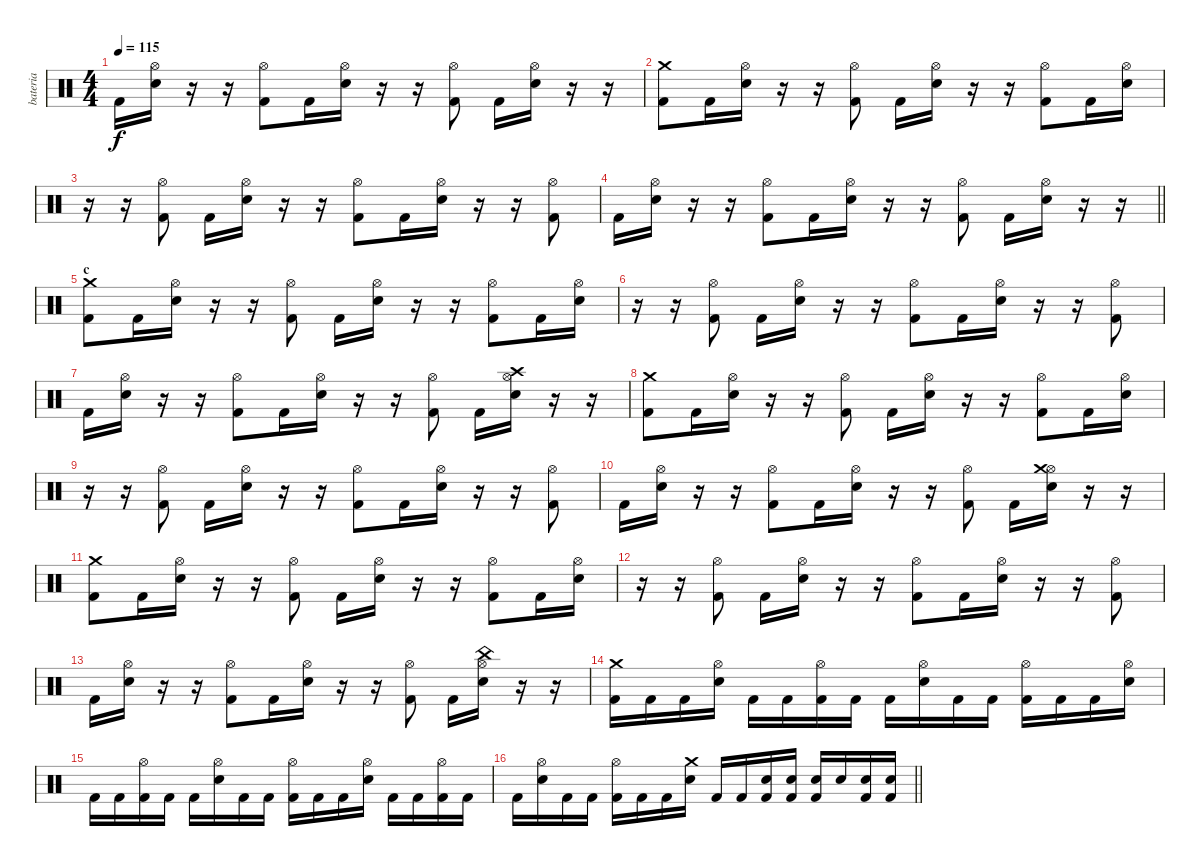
\track ("bateria" "bateria") {instrument percussion}
\staff {score}
\articulation defaults
\ts (4 4)
\tempo 115
\clef neutral
\ks c "Kick (hit) 2".16{dy f}
("Electric Snare (hit)" "Hi-Hat (open)").16 r.16 r.16 ("Kick (hit) 2" "Hi-Hat (open)").8 "Kick (hit) 2".16 ("Hi-Hat (open)" "Electric Snare (hit)").16 r.16 r.16 ("Kick (hit) 2" "Hi-Hat (open)").8 "Kick (hit) 2".16 ("Hi-Hat (open)" "Electric Snare (hit)").16 r.16 r.16 |
("Kick (hit) 2" "Crash medium (hit)").8 "Kick (hit) 2".16 ("Electric Snare (hit)" "Hi-Hat (open)").16 r.16 r.16 ("Kick (hit) 2" "Hi-Hat (open)").8 "Kick (hit) 2".16 ("Hi-Hat (open)" "Electric Snare (hit)").16 r.16 r.16 ("Kick (hit) 2" "Hi-Hat (open)").8 "Kick (hit) 2".16 ("Hi-Hat (open)" "Electric Snare (hit)").16 |
r.16 r.16 ("Kick (hit) 2" "Hi-Hat (open)").8 "Kick (hit) 2".16 ("Hi-Hat (open)" "Electric Snare (hit)").16 r.16 r.16 ("Kick (hit) 2" "Hi-Hat (open)").8 "Kick (hit) 2".16 ("Hi-Hat (open)" "Electric Snare (hit)").16 r.16 r.16 ("Kick (hit) 2" "Hi-Hat (open)").8 |
\barLineRight lightlight "Kick (hit) 2".16
("Electric Snare (hit)" "Hi-Hat (open)").16 r.16 r.16 ("Kick (hit) 2" "Hi-Hat (open)").8 "Kick (hit) 2".16 ("Hi-Hat (open)" "Electric Snare (hit)").16 r.16 r.16 ("Kick (hit) 2" "Hi-Hat (open)").8 "Kick (hit) 2".16 ("Hi-Hat (open)" "Electric Snare (hit)").16 r.16 r.16 |
\section ("" "c")
("Kick (hit) 2" "Crash medium (hit)").8 "Kick (hit) 2".16 ("Electric Snare (hit)" "Hi-Hat (open)").16 r.16 r.16 ("Kick (hit) 2" "Hi-Hat (open)").8 "Kick (hit) 2".16 ("Hi-Hat (open)" "Electric Snare (hit)").16 r.16 r.16 ("Kick (hit) 2" "Hi-Hat (open)").8 "Kick (hit) 2".16 ("Hi-Hat (open)" "Electric Snare (hit)").16 |
r.16 r.16 ("Kick (hit) 2" "Hi-Hat (open)").8 "Kick (hit) 2".16 ("Hi-Hat (open)" "Electric Snare (hit)").16 r.16 r.16 ("Kick (hit) 2" "Hi-Hat (open)").8 "Kick (hit) 2".16 ("Hi-Hat (open)" "Electric Snare (hit)").16 r.16 r.16 ("Kick (hit) 2" "Hi-Hat (open)").8 |
"Kick (hit) 2".16 ("Electric Snare (hit)" "Hi-Hat (open)").16 r.16 r.16 ("Kick (hit) 2" "Hi-Hat (open)").8 "Kick (hit) 2".16 ("Hi-Hat (open)" "Electric Snare (hit)").16 r.16 r.16 ("Kick (hit) 2" "Hi-Hat (open)").8 "Kick (hit) 2".16 ("Hi-Hat (open)" "Electric Snare (hit)" "Crash high (hit)").16 r.16 r.16 |
("Kick (hit) 2" "Crash medium (hit)").8 "Kick (hit) 2".16 ("Electric Snare (hit)" "Hi-Hat (open)").16 r.16 r.16 ("Kick (hit) 2" "Hi-Hat (open)").8 "Kick (hit) 2".16 ("Hi-Hat (open)" "Electric Snare (hit)").16 r.16 r.16 ("Kick (hit) 2" "Hi-Hat (open)").8 "Kick (hit) 2".16 ("Hi-Hat (open)" "Electric Snare (hit)").16 |
r.16 r.16 ("Kick (hit) 2" "Hi-Hat (open)").8 "Kick (hit) 2".16 ("Hi-Hat (open)" "Electric Snare (hit)").16 r.16 r.16 ("Kick (hit) 2" "Hi-Hat (open)").8 "Kick (hit) 2".16 ("Hi-Hat (open)" "Electric Snare (hit)").16 r.16 r.16 ("Kick (hit) 2" "Hi-Hat (open)").8 |
"Kick (hit) 2".16 ("Electric Snare (hit)" "Hi-Hat (open)").16 r.16 r.16 ("Kick (hit) 2" "Hi-Hat (open)").8 "Kick (hit) 2".16 ("Hi-Hat (open)" "Electric Snare (hit)").16 r.16 r.16 ("Kick (hit) 2" "Hi-Hat (open)").8 "Kick (hit) 2".16 ("Hi-Hat (open)" "Electric Snare (hit)" "Crash medium (hit)").16 r.16 r.16 |
("Kick (hit) 2" "Crash medium (hit)").8 "Kick (hit) 2".16 ("Electric Snare (hit)" "Hi-Hat (open)").16 r.16 r.16 ("Kick (hit) 2" "Hi-Hat (open)").8 "Kick (hit) 2".16 ("Hi-Hat (open)" "Electric Snare (hit)").16 r.16 r.16 ("Kick (hit) 2" "Hi-Hat (open)").8 "Kick (hit) 2".16 ("Hi-Hat (open)" "Electric Snare (hit)").16 |
r.16 r.16 ("Kick (hit) 2" "Hi-Hat (open)").8 "Kick (hit) 2".16 ("Hi-Hat (open)" "Electric Snare (hit)").16 r.16 r.16 ("Kick (hit) 2" "Hi-Hat (open)").8 "Kick (hit) 2".16 ("Hi-Hat (open)" "Electric Snare (hit)").16 r.16 r.16 ("Kick (hit) 2" "Hi-Hat (open)").8 |
"Kick (hit) 2".16 ("Electric Snare (hit)" "Hi-Hat (open)").16 r.16 r.16 ("Kick (hit) 2" "Hi-Hat (open)").8 "Kick (hit) 2".16 ("Hi-Hat (open)" "Electric Snare (hit)").16 r.16 r.16 ("Kick (hit) 2" "Hi-Hat (open)").8 "Kick (hit) 2".16 ("Hi-Hat (open)" "Electric Snare (hit)" "China (hit)").16 r.16 r.16 |
("Kick (hit) 2" "Crash medium (hit)").16 "Kick (hit) 2".16 "Kick (hit) 2".16 ("Electric Snare (hit)" "Hi-Hat (open)").16 "Kick (hit) 2".16 "Kick (hit) 2".16 ("Kick (hit) 2" "Hi-Hat (open)").16 "Kick (hit) 2".16 "Kick (hit) 2".16 ("Hi-Hat (open)" "Electric Snare (hit)").16 "Kick (hit) 2".16 "Kick (hit) 2".16 ("Kick (hit) 2" "Hi-Hat (open)").16 "Kick (hit) 2".16 "Kick (hit) 2".16 ("Hi-Hat (open)" "Electric Snare (hit)").16 |
"Kick (hit) 2".16 "Kick (hit) 2".16 ("Kick (hit) 2" "Hi-Hat (open)").16 "Kick (hit) 2".16 "Kick (hit) 2".16 ("Hi-Hat (open)" "Electric Snare (hit)").16 "Kick (hit) 2".16 "Kick (hit) 2".16 ("Kick (hit) 2" "Hi-Hat (open)").16 "Kick (hit) 2".16 "Kick (hit) 2".16 ("Hi-Hat (open)" "Electric Snare (hit)").16 "Kick (hit) 2".16 "Kick (hit) 2".16 ("Kick (hit) 2" "Hi-Hat (open)").16 "Kick (hit) 2".16 |
\barLineRight lightlight "Kick (hit) 2".16
("Hi-Hat (open)" "Electric Snare (hit)").16 "Kick (hit) 2".16 "Kick (hit) 2".16 ("Kick (hit) 2" "Hi-Hat (open)").16 "Kick (hit) 2".16 "Kick (hit) 2".16 ("Electric Snare (hit)" "Crash medium (hit)").16 "Kick (hit) 2".16 "Kick (hit) 2".16 ("Kick (hit) 2" "Electric Snare (hit)").16 ("Kick (hit) 2" "Electric Snare (hit)").16 ("Kick (hit) 2" "Electric Snare (hit)").16 "Electric Snare (hit)".16 ("Kick (hit) 2" "Electric Snare (hit)").16 ("Kick (hit) 2" "Electric Snare (hit)").16
